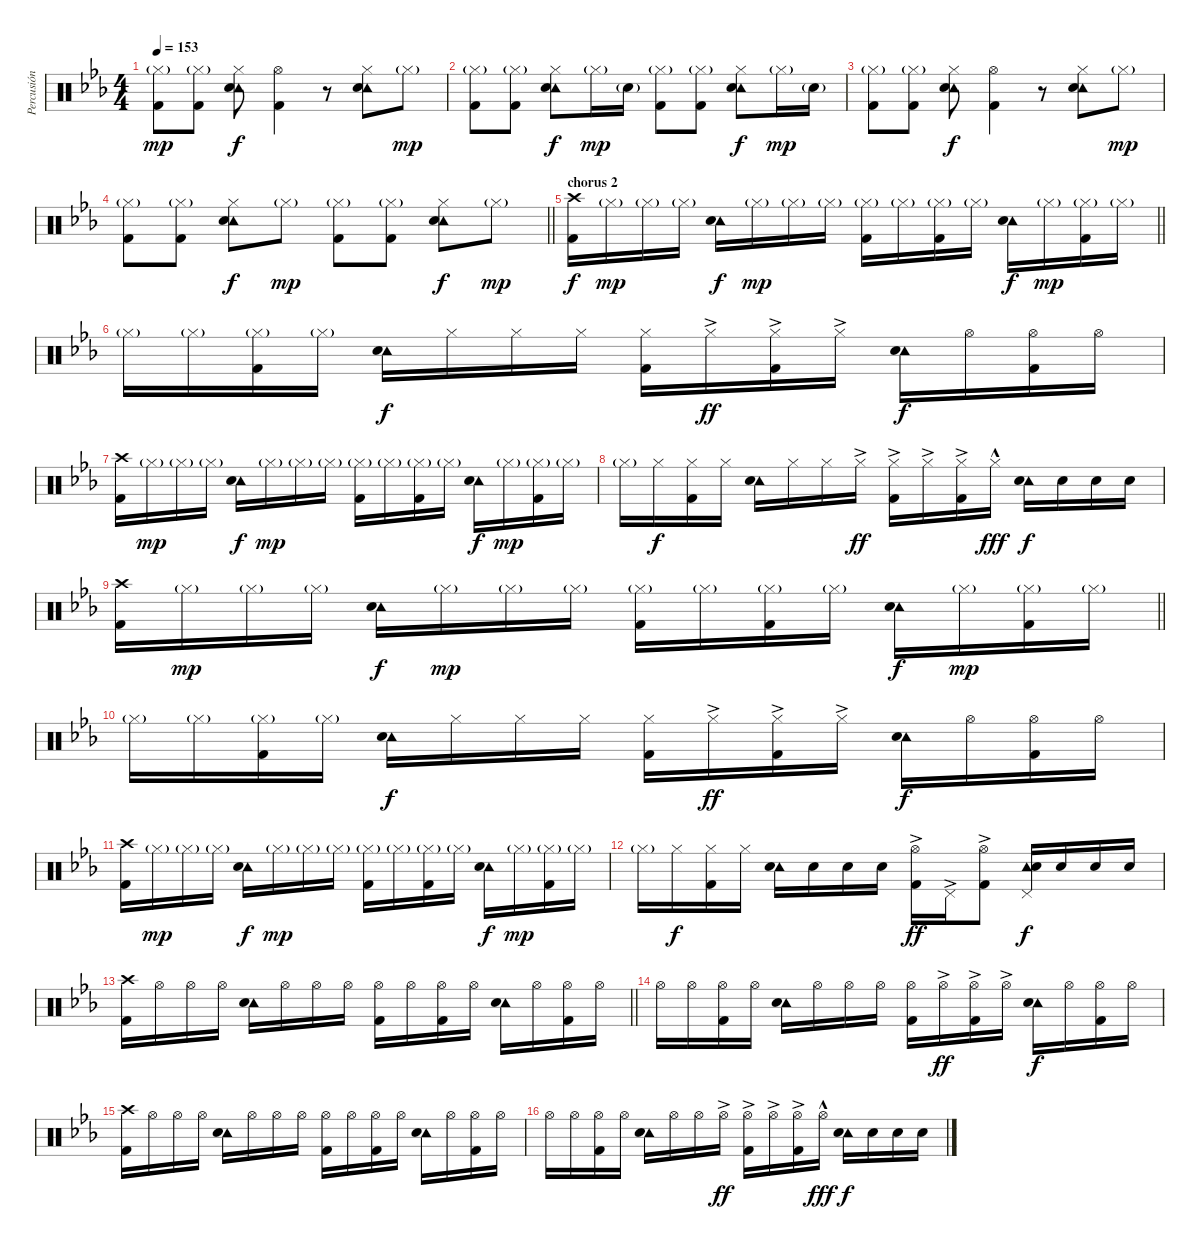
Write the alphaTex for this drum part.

\track ("Percusión" "Percusión") {instrument percussion}
\staff {score}
\articulation defaults
\ts (4 4)
\tempo 153
\clef neutral
\ks eb
("Hi-Hat (closed)"{g} "Kick (hit) 2").8{dy mp} ("Hi-Hat (closed)"{g} "Kick (hit) 2").8 ("Tambourine (hit)" "Hi-Hat (closed)" "Snare (hit) 2").8{dy f} ("Hi-Hat (open)" "Kick (hit) 2").4 r.8 ("Tambourine (hit)" "Hi-Hat (closed)" "Snare (hit) 2").8 "Hi-Hat (closed)"{g}.8{dy mp} |
("Hi-Hat (closed)"{g} "Kick (hit) 2").8 ("Hi-Hat (closed)"{g} "Kick (hit) 2").8 ("Tambourine (hit)" "Hi-Hat (closed)" "Snare (hit) 2").8{dy f} "Hi-Hat (closed)"{g}.16{dy mp} "Snare (hit) 2"{g}.16 ("Hi-Hat (closed)"{g} "Kick (hit) 2").8 ("Hi-Hat (closed)"{g} "Kick (hit) 2").8 ("Tambourine (hit)" "Hi-Hat (closed)" "Snare (hit) 2").8{dy f} "Hi-Hat (closed)"{g}.16{dy mp} "Snare (hit) 2"{g}.16 |
("Hi-Hat (closed)"{g} "Kick (hit) 2").8 ("Hi-Hat (closed)"{g} "Kick (hit) 2").8 ("Tambourine (hit)" "Hi-Hat (closed)" "Snare (hit) 2").8{dy f} ("Hi-Hat (open)" "Kick (hit) 2").4 r.8 ("Tambourine (hit)" "Hi-Hat (closed)" "Snare (hit) 2").8 "Hi-Hat (closed)"{g}.8{dy mp} |
\barLineRight lightlight
("Hi-Hat (closed)"{g} "Kick (hit) 2").8 ("Hi-Hat (closed)"{g} "Kick (hit) 2").8 ("Tambourine (hit)" "Hi-Hat (closed)" "Snare (hit) 2").8{dy f} "Hi-Hat (closed)"{g}.8{dy mp} ("Hi-Hat (closed)"{g} "Kick (hit) 2").8 ("Hi-Hat (closed)"{g} "Kick (hit) 2").8 ("Tambourine (hit)" "Hi-Hat (closed)" "Snare (hit) 2").8{dy f} "Hi-Hat (closed)"{g}.8{dy mp} |
\section ("" "chorus 2")
\barLineRight lightlight
("Crash high (hit)" "Kick (hit) 2").16{dy f} "Hi-Hat (closed)"{g}.16{dy mp} "Hi-Hat (closed)"{g}.16 "Hi-Hat (closed)"{g}.16 ("Tambourine (hit)" "Snare (hit) 2").16{dy f} "Hi-Hat (closed)"{g}.16{dy mp} "Hi-Hat (closed)"{g}.16 "Hi-Hat (closed)"{g}.16 ("Hi-Hat (closed)"{g} "Kick (hit) 2").16 "Hi-Hat (closed)"{g}.16 ("Hi-Hat (closed)"{g} "Kick (hit) 2").16 "Hi-Hat (closed)"{g}.16 ("Tambourine (hit)" "Snare (hit) 2").16{dy f} "Hi-Hat (closed)"{g}.16{dy mp} ("Hi-Hat (closed)"{g} "Kick (hit) 2").16 "Hi-Hat (closed)"{g}.16 |
"Hi-Hat (closed)"{g}.16 "Hi-Hat (closed)"{g}.16 ("Hi-Hat (closed)"{g} "Kick (hit) 2").16 "Hi-Hat (closed)"{g}.16 ("Tambourine (hit)" "Snare (hit) 2").16{dy f} "Hi-Hat (closed)".16 "Hi-Hat (closed)".16 "Hi-Hat (closed)".16 ("Hi-Hat (closed)" "Kick (hit) 2").16 "Hi-Hat (closed)"{ac}.16{dy ff} ("Hi-Hat (closed)"{ac} "Kick (hit) 2").16 "Hi-Hat (closed)"{ac}.16 ("Tambourine (hit)" "Snare (hit) 2").16{dy f} "Hi-Hat (open)".16 ("Hi-Hat (open)" "Kick (hit) 2").16 "Hi-Hat (open)".16 |
("Crash high (hit)" "Kick (hit) 2").16 "Hi-Hat (closed)"{g}.16{dy mp} "Hi-Hat (closed)"{g}.16 "Hi-Hat (closed)"{g}.16 ("Tambourine (hit)" "Snare (hit) 2").16{dy f} "Hi-Hat (closed)"{g}.16{dy mp} "Hi-Hat (closed)"{g}.16 "Hi-Hat (closed)"{g}.16 ("Hi-Hat (closed)"{g} "Kick (hit) 2").16 "Hi-Hat (closed)"{g}.16 ("Hi-Hat (closed)"{g} "Kick (hit) 2").16 "Hi-Hat (closed)"{g}.16 ("Tambourine (hit)" "Snare (hit) 2").16{dy f} "Hi-Hat (closed)"{g}.16{dy mp} ("Hi-Hat (closed)"{g} "Kick (hit) 2").16 "Hi-Hat (closed)"{g}.16 |
"Hi-Hat (closed)"{g}.16 "Hi-Hat (closed)".16{dy f} ("Hi-Hat (closed)" "Kick (hit) 2").16 "Hi-Hat (closed)".16 ("Tambourine (hit)" "Snare (hit) 2").16 "Hi-Hat (closed)".16 "Hi-Hat (closed)".16 "Hi-Hat (closed)"{ac}.16{dy ff} ("Hi-Hat (closed)"{ac} "Kick (hit) 2").16 "Hi-Hat (closed)"{ac}.16 ("Hi-Hat (closed)"{ac} "Kick (hit) 2").16 "Hi-Hat (closed)"{hac}.16{dy fff} ("Tambourine (hit)" "Snare (hit) 2").16{dy f} "Snare (hit) 2".16 "Snare (hit) 2".16 "Snare (hit) 2".16 |
\barLineRight lightlight
("Crash high (hit)" "Kick (hit) 2").16 "Hi-Hat (closed)"{g}.16{dy mp} "Hi-Hat (closed)"{g}.16 "Hi-Hat (closed)"{g}.16 ("Tambourine (hit)" "Snare (hit) 2").16{dy f} "Hi-Hat (closed)"{g}.16{dy mp} "Hi-Hat (closed)"{g}.16 "Hi-Hat (closed)"{g}.16 ("Hi-Hat (closed)"{g} "Kick (hit) 2").16 "Hi-Hat (closed)"{g}.16 ("Hi-Hat (closed)"{g} "Kick (hit) 2").16 "Hi-Hat (closed)"{g}.16 ("Tambourine (hit)" "Snare (hit) 2").16{dy f} "Hi-Hat (closed)"{g}.16{dy mp} ("Hi-Hat (closed)"{g} "Kick (hit) 2").16 "Hi-Hat (closed)"{g}.16 |
"Hi-Hat (closed)"{g}.16 "Hi-Hat (closed)"{g}.16 ("Hi-Hat (closed)"{g} "Kick (hit) 2").16 "Hi-Hat (closed)"{g}.16 ("Tambourine (hit)" "Snare (hit) 2").16{dy f} "Hi-Hat (closed)".16 "Hi-Hat (closed)".16 "Hi-Hat (closed)".16 ("Hi-Hat (closed)" "Kick (hit) 2").16 "Hi-Hat (closed)"{ac}.16{dy ff} ("Hi-Hat (closed)"{ac} "Kick (hit) 2").16 "Hi-Hat (closed)"{ac}.16 ("Tambourine (hit)" "Snare (hit) 2").16{dy f} "Hi-Hat (open)".16 ("Hi-Hat (open)" "Kick (hit) 2").16 "Hi-Hat (open)".16 |
("Crash high (hit)" "Kick (hit) 2").16 "Hi-Hat (closed)"{g}.16{dy mp} "Hi-Hat (closed)"{g}.16 "Hi-Hat (closed)"{g}.16 ("Tambourine (hit)" "Snare (hit) 2").16{dy f} "Hi-Hat (closed)"{g}.16{dy mp} "Hi-Hat (closed)"{g}.16 "Hi-Hat (closed)"{g}.16 ("Hi-Hat (closed)"{g} "Kick (hit) 2").16 "Hi-Hat (closed)"{g}.16 ("Hi-Hat (closed)"{g} "Kick (hit) 2").16 "Hi-Hat (closed)"{g}.16 ("Tambourine (hit)" "Snare (hit) 2").16{dy f} "Hi-Hat (closed)"{g}.16{dy mp} ("Hi-Hat (closed)"{g} "Kick (hit) 2").16 "Hi-Hat (closed)"{g}.16 |
"Hi-Hat (closed)"{g}.16 "Hi-Hat (closed)".16{dy f} ("Hi-Hat (closed)" "Kick (hit) 2").16 "Hi-Hat (closed)".16 ("Tambourine (hit)" "Snare (hit) 2").16 "Snare (hit) 2".16 "Snare (hit) 2".16 "Snare (hit) 2".16 ("Hi-Hat (open)"{ac} "Kick (hit) 2").16{dy ff} "Pedal Hi-Hat (hit)"{ac}.16 ("Hi-Hat (open)"{ac} "Kick (hit) 2").8 ("Tambourine (hit)" "Pedal Hi-Hat (hit)" "Snare (hit) 2").16{dy f} "Snare (hit) 2".16 "Snare (hit) 2".16 "Snare (hit) 2".16 |
\barLineRight lightlight
("Crash high (hit)" "Kick (hit) 2").16 "Hi-Hat (open)".16 "Hi-Hat (open)".16 "Hi-Hat (open)".16 ("Tambourine (hit)" "Snare (hit) 2").16 "Hi-Hat (open)".16 "Hi-Hat (open)".16 "Hi-Hat (open)".16 ("Hi-Hat (open)" "Kick (hit) 2").16 "Hi-Hat (open)".16 ("Hi-Hat (open)" "Kick (hit) 2").16 "Hi-Hat (open)".16 ("Tambourine (hit)" "Snare (hit) 2").16 "Hi-Hat (open)".16 ("Hi-Hat (open)" "Kick (hit) 2").16 "Hi-Hat (open)".16 |
"Hi-Hat (open)".16 "Hi-Hat (open)".16 ("Hi-Hat (open)" "Kick (hit) 2").16 "Hi-Hat (open)".16 ("Tambourine (hit)" "Snare (hit) 2").16 "Hi-Hat (open)".16 "Hi-Hat (open)".16 "Hi-Hat (open)".16 ("Hi-Hat (open)" "Kick (hit) 2").16 "Hi-Hat (open)"{ac}.16{dy ff} ("Hi-Hat (open)"{ac} "Kick (hit) 2").16 "Hi-Hat (open)"{ac}.16 ("Tambourine (hit)" "Snare (hit) 2").16{dy f} "Hi-Hat (open)".16 ("Hi-Hat (open)" "Kick (hit) 2").16 "Hi-Hat (open)".16 |
("Crash high (hit)" "Kick (hit) 2").16 "Hi-Hat (open)".16 "Hi-Hat (open)".16 "Hi-Hat (open)".16 ("Tambourine (hit)" "Snare (hit) 2").16 "Hi-Hat (open)".16 "Hi-Hat (open)".16 "Hi-Hat (open)".16 ("Hi-Hat (open)" "Kick (hit) 2").16 "Hi-Hat (open)".16 ("Hi-Hat (open)" "Kick (hit) 2").16 "Hi-Hat (open)".16 ("Tambourine (hit)" "Snare (hit) 2").16 "Hi-Hat (open)".16 ("Hi-Hat (open)" "Kick (hit) 2").16 "Hi-Hat (open)".16 |
"Hi-Hat (open)".16 "Hi-Hat (open)".16 ("Hi-Hat (open)" "Kick (hit) 2").16 "Hi-Hat (open)".16 ("Tambourine (hit)" "Snare (hit) 2").16 "Hi-Hat (open)".16 "Hi-Hat (open)".16 "Hi-Hat (open)"{ac}.16{dy ff} ("Hi-Hat (open)"{ac} "Kick (hit) 2").16 "Hi-Hat (open)"{ac}.16 ("Hi-Hat (open)"{ac} "Kick (hit) 2").16 "Hi-Hat (open)"{hac}.16{dy fff} ("Tambourine (hit)" "Snare (hit) 2").16{dy f} "Snare (hit) 2".16 "Snare (hit) 2".16 "Snare (hit) 2".16
